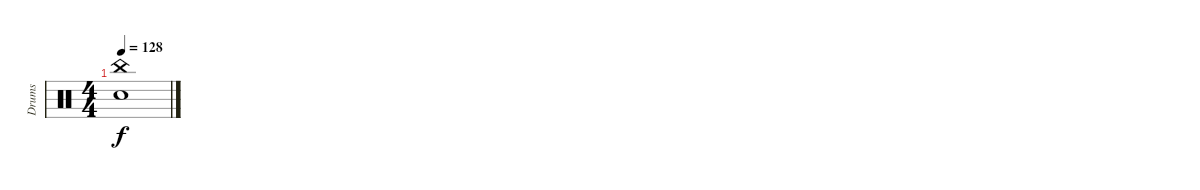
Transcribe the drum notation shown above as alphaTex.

\track ("Drums" "Drums") {instrument percussion}
\staff {score}
\articulation defaults
\ts (4 4)
\tempo 128
\clef neutral
\ks c
("China (hit)" "Electric Snare (hit)").1{dy f}
